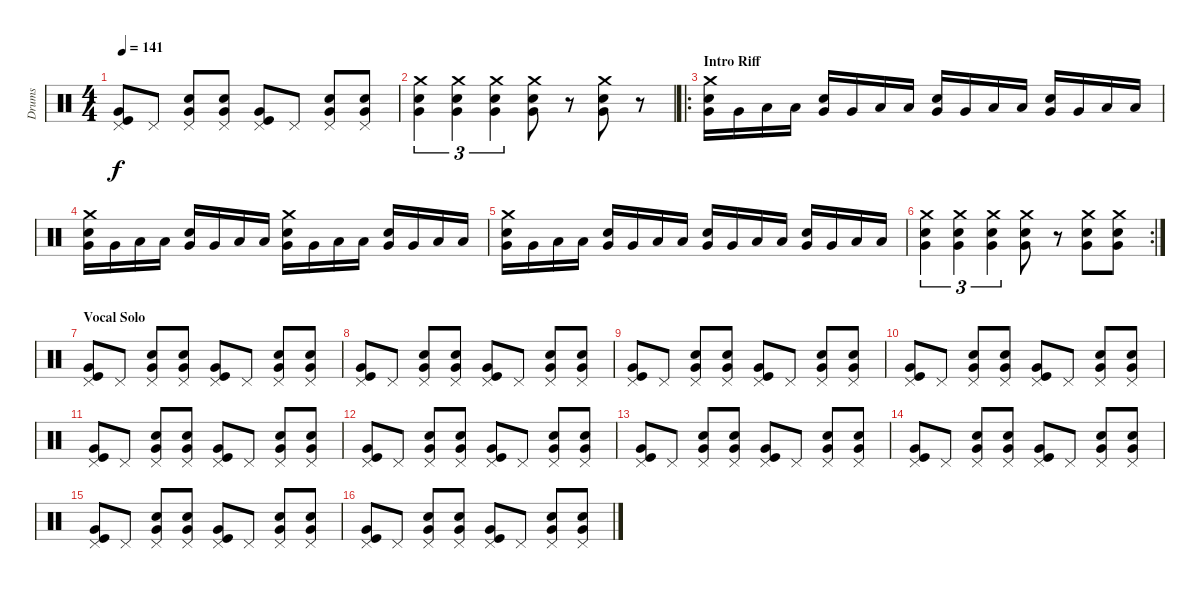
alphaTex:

\track ("Drums" "Drums") {instrument percussion}
\staff {score}
\articulation defaults
\ts (4 4)
\tempo 141
\clef neutral
\ks c
("Pedal Hi-Hat (hit)" "Very Low Tom (hit)" "Kick (hit)").8{dy f} "Pedal Hi-Hat (hit)".8 ("Pedal Hi-Hat (hit)" "Very Low Tom (hit)" "Snare (hit) 2").8 ("Pedal Hi-Hat (hit)" "Very Low Tom (hit)" "Snare (hit) 2").8 ("Pedal Hi-Hat (hit)" "Very Low Tom (hit)" "Kick (hit)").8 "Pedal Hi-Hat (hit)".8 ("Pedal Hi-Hat (hit)" "Very Low Tom (hit)" "Snare (hit) 2").8 ("Pedal Hi-Hat (hit)" "Very Low Tom (hit)" "Snare (hit) 2").8 |
("Crash medium (hit)" "Snare (hit) 2" "Very Low Tom (hit)").4{tu (3 2)} ("Crash medium (hit)" "Snare (hit) 2" "Very Low Tom (hit)").4{tu (3 2)} ("Crash medium (hit)" "Snare (hit) 2" "Very Low Tom (hit)").4{tu (3 2)} ("Crash medium (hit)" "Snare (hit) 2" "Very Low Tom (hit)").8 r.8 ("Crash medium (hit)" "Snare (hit) 2" "Very Low Tom (hit)").8 r.8 |
\ro
\section ("" "Intro Riff")
("Crash medium (hit)" "Snare (hit) 2" "Very Low Tom (hit)").16 "Very Low Tom (hit)".16 "Low Floor Tom (hit)".16 "Low Floor Tom (hit)".16 ("Snare (hit) 2" "Very Low Tom (hit)").16 "Very Low Tom (hit)".16 "Low Floor Tom (hit)".16 "Low Floor Tom (hit)".16 ("Snare (hit) 2" "Very Low Tom (hit)").16 "Very Low Tom (hit)".16 "Low Floor Tom (hit)".16 "Low Floor Tom (hit)".16 ("Snare (hit) 2" "Very Low Tom (hit)").16 "Very Low Tom (hit)".16 "Low Floor Tom (hit)".16 "Low Floor Tom (hit)".16 |
("Crash medium (hit)" "Snare (hit) 2" "Very Low Tom (hit)").16 "Very Low Tom (hit)".16 "Low Floor Tom (hit)".16 "Low Floor Tom (hit)".16 ("Snare (hit) 2" "Very Low Tom (hit)").16 "Very Low Tom (hit)".16 "Low Floor Tom (hit)".16 "Low Floor Tom (hit)".16 ("Crash medium (hit)" "Snare (hit) 2" "Very Low Tom (hit)").16 "Very Low Tom (hit)".16 "Low Floor Tom (hit)".16 "Low Floor Tom (hit)".16 ("Snare (hit) 2" "Very Low Tom (hit)").16 "Very Low Tom (hit)".16 "Low Floor Tom (hit)".16 "Low Floor Tom (hit)".16 |
("Crash medium (hit)" "Snare (hit) 2" "Very Low Tom (hit)").16 "Very Low Tom (hit)".16 "Low Floor Tom (hit)".16 "Low Floor Tom (hit)".16 ("Snare (hit) 2" "Very Low Tom (hit)").16 "Very Low Tom (hit)".16 "Low Floor Tom (hit)".16 "Low Floor Tom (hit)".16 ("Snare (hit) 2" "Very Low Tom (hit)").16 "Very Low Tom (hit)".16 "Low Floor Tom (hit)".16 "Low Floor Tom (hit)".16 ("Snare (hit) 2" "Very Low Tom (hit)").16 "Very Low Tom (hit)".16 "Low Floor Tom (hit)".16 "Low Floor Tom (hit)".16 |
\rc 2
("Crash medium (hit)" "Snare (hit) 2" "Very Low Tom (hit)").4{tu (3 2)} ("Crash medium (hit)" "Snare (hit) 2" "Very Low Tom (hit)").4{tu (3 2)} ("Crash medium (hit)" "Snare (hit) 2" "Very Low Tom (hit)").4{tu (3 2)} ("Crash medium (hit)" "Snare (hit) 2" "Very Low Tom (hit)").8 r.8 ("Crash medium (hit)" "Snare (hit) 2" "Very Low Tom (hit)").8 ("Crash medium (hit)" "Snare (hit) 2" "Very Low Tom (hit)").8 |
\section ("" "Vocal Solo")
("Pedal Hi-Hat (hit)" "Very Low Tom (hit)" "Kick (hit)").8 "Pedal Hi-Hat (hit)".8 ("Pedal Hi-Hat (hit)" "Very Low Tom (hit)" "Snare (hit) 2").8 ("Pedal Hi-Hat (hit)" "Very Low Tom (hit)" "Snare (hit) 2").8 ("Pedal Hi-Hat (hit)" "Very Low Tom (hit)" "Kick (hit)").8 "Pedal Hi-Hat (hit)".8 ("Pedal Hi-Hat (hit)" "Very Low Tom (hit)" "Snare (hit) 2").8 ("Pedal Hi-Hat (hit)" "Very Low Tom (hit)" "Snare (hit) 2").8 |
("Pedal Hi-Hat (hit)" "Very Low Tom (hit)" "Kick (hit)").8 "Pedal Hi-Hat (hit)".8 ("Pedal Hi-Hat (hit)" "Very Low Tom (hit)" "Snare (hit) 2").8 ("Pedal Hi-Hat (hit)" "Very Low Tom (hit)" "Snare (hit) 2").8 ("Pedal Hi-Hat (hit)" "Very Low Tom (hit)" "Kick (hit)").8 "Pedal Hi-Hat (hit)".8 ("Pedal Hi-Hat (hit)" "Very Low Tom (hit)" "Snare (hit) 2").8 ("Pedal Hi-Hat (hit)" "Very Low Tom (hit)" "Snare (hit) 2").8 |
("Pedal Hi-Hat (hit)" "Very Low Tom (hit)" "Kick (hit)").8 "Pedal Hi-Hat (hit)".8 ("Pedal Hi-Hat (hit)" "Very Low Tom (hit)" "Snare (hit) 2").8 ("Pedal Hi-Hat (hit)" "Very Low Tom (hit)" "Snare (hit) 2").8 ("Pedal Hi-Hat (hit)" "Very Low Tom (hit)" "Kick (hit)").8 "Pedal Hi-Hat (hit)".8 ("Pedal Hi-Hat (hit)" "Very Low Tom (hit)" "Snare (hit) 2").8 ("Pedal Hi-Hat (hit)" "Very Low Tom (hit)" "Snare (hit) 2").8 |
("Pedal Hi-Hat (hit)" "Very Low Tom (hit)" "Kick (hit)").8 "Pedal Hi-Hat (hit)".8 ("Pedal Hi-Hat (hit)" "Very Low Tom (hit)" "Snare (hit) 2").8 ("Pedal Hi-Hat (hit)" "Very Low Tom (hit)" "Snare (hit) 2").8 ("Pedal Hi-Hat (hit)" "Very Low Tom (hit)" "Kick (hit)").8 "Pedal Hi-Hat (hit)".8 ("Pedal Hi-Hat (hit)" "Very Low Tom (hit)" "Snare (hit) 2").8 ("Pedal Hi-Hat (hit)" "Very Low Tom (hit)" "Snare (hit) 2").8 |
("Pedal Hi-Hat (hit)" "Very Low Tom (hit)" "Kick (hit)").8 "Pedal Hi-Hat (hit)".8 ("Pedal Hi-Hat (hit)" "Very Low Tom (hit)" "Snare (hit) 2").8 ("Pedal Hi-Hat (hit)" "Very Low Tom (hit)" "Snare (hit) 2").8 ("Pedal Hi-Hat (hit)" "Very Low Tom (hit)" "Kick (hit)").8 "Pedal Hi-Hat (hit)".8 ("Pedal Hi-Hat (hit)" "Very Low Tom (hit)" "Snare (hit) 2").8 ("Pedal Hi-Hat (hit)" "Very Low Tom (hit)" "Snare (hit) 2").8 |
("Pedal Hi-Hat (hit)" "Very Low Tom (hit)" "Kick (hit)").8 "Pedal Hi-Hat (hit)".8 ("Pedal Hi-Hat (hit)" "Very Low Tom (hit)" "Snare (hit) 2").8 ("Pedal Hi-Hat (hit)" "Very Low Tom (hit)" "Snare (hit) 2").8 ("Pedal Hi-Hat (hit)" "Very Low Tom (hit)" "Kick (hit)").8 "Pedal Hi-Hat (hit)".8 ("Pedal Hi-Hat (hit)" "Very Low Tom (hit)" "Snare (hit) 2").8 ("Pedal Hi-Hat (hit)" "Very Low Tom (hit)" "Snare (hit) 2").8 |
("Pedal Hi-Hat (hit)" "Very Low Tom (hit)" "Kick (hit)").8 "Pedal Hi-Hat (hit)".8 ("Pedal Hi-Hat (hit)" "Very Low Tom (hit)" "Snare (hit) 2").8 ("Pedal Hi-Hat (hit)" "Very Low Tom (hit)" "Snare (hit) 2").8 ("Pedal Hi-Hat (hit)" "Very Low Tom (hit)" "Kick (hit)").8 "Pedal Hi-Hat (hit)".8 ("Pedal Hi-Hat (hit)" "Very Low Tom (hit)" "Snare (hit) 2").8 ("Pedal Hi-Hat (hit)" "Very Low Tom (hit)" "Snare (hit) 2").8 |
("Pedal Hi-Hat (hit)" "Very Low Tom (hit)" "Kick (hit)").8 "Pedal Hi-Hat (hit)".8 ("Pedal Hi-Hat (hit)" "Very Low Tom (hit)" "Snare (hit) 2").8 ("Pedal Hi-Hat (hit)" "Very Low Tom (hit)" "Snare (hit) 2").8 ("Pedal Hi-Hat (hit)" "Very Low Tom (hit)" "Kick (hit)").8 "Pedal Hi-Hat (hit)".8 ("Pedal Hi-Hat (hit)" "Very Low Tom (hit)" "Snare (hit) 2").8 ("Pedal Hi-Hat (hit)" "Very Low Tom (hit)" "Snare (hit) 2").8 |
("Pedal Hi-Hat (hit)" "Very Low Tom (hit)" "Kick (hit)").8 "Pedal Hi-Hat (hit)".8 ("Pedal Hi-Hat (hit)" "Very Low Tom (hit)" "Snare (hit) 2").8 ("Pedal Hi-Hat (hit)" "Very Low Tom (hit)" "Snare (hit) 2").8 ("Pedal Hi-Hat (hit)" "Very Low Tom (hit)" "Kick (hit)").8 "Pedal Hi-Hat (hit)".8 ("Pedal Hi-Hat (hit)" "Very Low Tom (hit)" "Snare (hit) 2").8 ("Pedal Hi-Hat (hit)" "Very Low Tom (hit)" "Snare (hit) 2").8 |
("Pedal Hi-Hat (hit)" "Very Low Tom (hit)" "Kick (hit)").8 "Pedal Hi-Hat (hit)".8 ("Pedal Hi-Hat (hit)" "Very Low Tom (hit)" "Snare (hit) 2").8 ("Pedal Hi-Hat (hit)" "Very Low Tom (hit)" "Snare (hit) 2").8 ("Pedal Hi-Hat (hit)" "Very Low Tom (hit)" "Kick (hit)").8 "Pedal Hi-Hat (hit)".8 ("Pedal Hi-Hat (hit)" "Very Low Tom (hit)" "Snare (hit) 2").8 ("Pedal Hi-Hat (hit)" "Very Low Tom (hit)" "Snare (hit) 2").8
